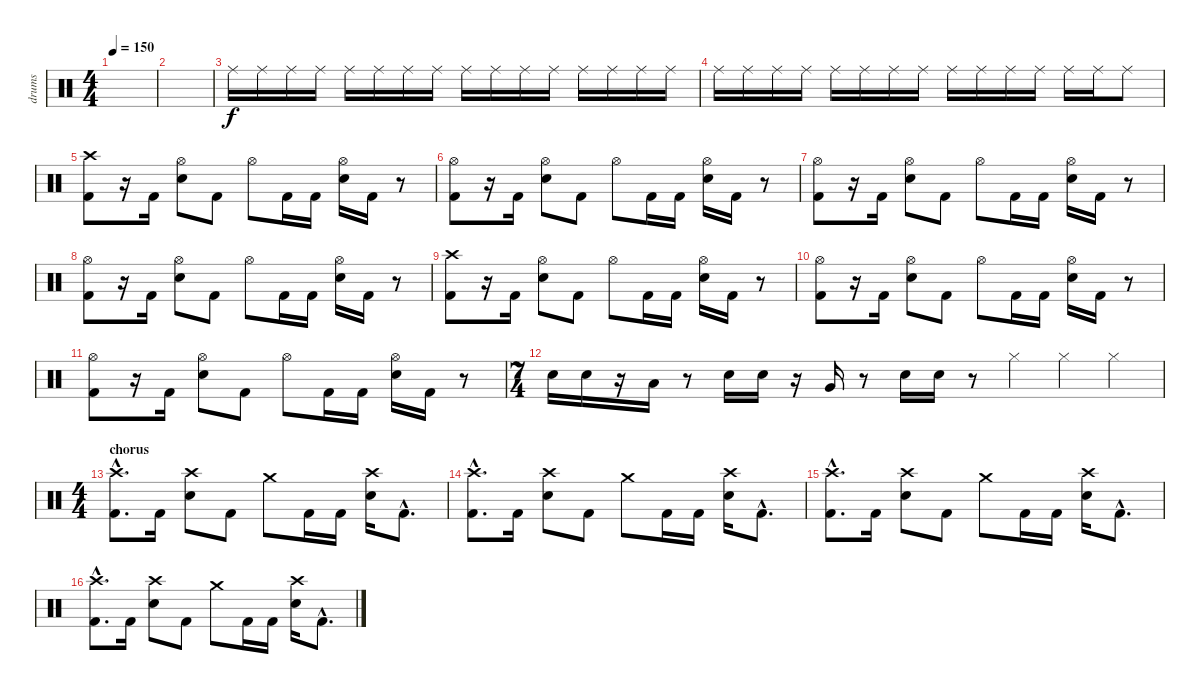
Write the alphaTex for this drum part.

\track ("drums" "drums") {instrument percussion}
\staff {score}
\articulation defaults
\ts (4 4)
\tempo 150
\clef neutral
\ks c
|
|
"Ride (middle)".16 "Ride (middle)".16 "Ride (middle)".16 "Ride (middle)".16 "Ride (middle)".16 "Ride (middle)".16 "Ride (middle)".16 "Ride (middle)".16 "Ride (middle)".16 "Ride (middle)".16 "Ride (middle)".16 "Ride (middle)".16 "Ride (middle)".16 "Ride (middle)".16 "Ride (middle)".16 "Ride (middle)".16 |
"Ride (middle)".16 "Ride (middle)".16 "Ride (middle)".16 "Ride (middle)".16 "Ride (middle)".16 "Ride (middle)".16 "Ride (middle)".16 "Ride (middle)".16 "Ride (middle)".16 "Ride (middle)".16 "Ride (middle)".16 "Ride (middle)".16 "Ride (middle)".16 "Ride (middle)".16 "Ride (middle)".8 |
("Crash high (hit)" "Kick (hit) 2").8 r.16 "Kick (hit) 2".16 ("Hi-Hat (open)" "Electric Snare (hit)").8 "Kick (hit) 2".8 "Hi-Hat (open)".8 "Kick (hit) 2".16 "Kick (hit) 2".16 ("Hi-Hat (open)" "Electric Snare (hit)").16 "Kick (hit) 2".16 r.8 |
("Hi-Hat (open)" "Kick (hit) 2").8 r.16 "Kick (hit) 2".16 ("Hi-Hat (open)" "Electric Snare (hit)").8 "Kick (hit) 2".8 "Hi-Hat (open)".8 "Kick (hit) 2".16 "Kick (hit) 2".16 ("Hi-Hat (open)" "Electric Snare (hit)").16 "Kick (hit) 2".16 r.8 |
("Hi-Hat (open)" "Kick (hit) 2").8 r.16 "Kick (hit) 2".16 ("Hi-Hat (open)" "Electric Snare (hit)").8 "Kick (hit) 2".8 "Hi-Hat (open)".8 "Kick (hit) 2".16 "Kick (hit) 2".16 ("Hi-Hat (open)" "Electric Snare (hit)").16 "Kick (hit) 2".16 r.8 |
("Hi-Hat (open)" "Kick (hit) 2").8 r.16 "Kick (hit) 2".16 ("Hi-Hat (open)" "Electric Snare (hit)").8 "Kick (hit) 2".8 "Hi-Hat (open)".8 "Kick (hit) 2".16 "Kick (hit) 2".16 ("Hi-Hat (open)" "Electric Snare (hit)").16 "Kick (hit) 2".16 r.8 |
("Crash high (hit)" "Kick (hit) 2").8 r.16 "Kick (hit) 2".16 ("Hi-Hat (open)" "Electric Snare (hit)").8 "Kick (hit) 2".8 "Hi-Hat (open)".8 "Kick (hit) 2".16 "Kick (hit) 2".16 ("Hi-Hat (open)" "Electric Snare (hit)").16 "Kick (hit) 2".16 r.8 |
("Hi-Hat (open)" "Kick (hit) 2").8 r.16 "Kick (hit) 2".16 ("Hi-Hat (open)" "Electric Snare (hit)").8 "Kick (hit) 2".8 "Hi-Hat (open)".8 "Kick (hit) 2".16 "Kick (hit) 2".16 ("Hi-Hat (open)" "Electric Snare (hit)").16 "Kick (hit) 2".16 r.8 |
("Hi-Hat (open)" "Kick (hit) 2").8 r.16 "Kick (hit) 2".16 ("Hi-Hat (open)" "Electric Snare (hit)").8 "Kick (hit) 2".8 "Hi-Hat (open)".8 "Kick (hit) 2".16 "Kick (hit) 2".16 ("Hi-Hat (open)" "Electric Snare (hit)").16 "Kick (hit) 2".16 r.8 |
\ts (7 4)
"Electric Snare (hit)".16 "Electric Snare (hit)".16 r.16 "Low Tom (hit)".16 r.8 "Electric Snare (hit)".16 "Electric Snare (hit)".16 r.16 "Very Low Tom (hit)".16 r.8 "Electric Snare (hit)".16 "Electric Snare (hit)".16 r.8 "Hi-Hat (closed)".4 "Hi-Hat (closed)".4 "Hi-Hat (closed)".4 |
\ts (4 4)
\section ("" "chorus")
("Crash high (hit)"{hac} "Kick (hit) 2"{hac}).8{d} "Kick (hit) 2".16 ("Crash high (hit)" "Electric Snare (hit)").8 "Kick (hit) 2".8 "Crash medium (hit)".8 "Kick (hit) 2".16 "Kick (hit) 2".16 ("Crash high (hit)" "Electric Snare (hit)").16 "Kick (hit) 2"{hac}.8{d} |
("Crash high (hit)"{hac} "Kick (hit) 2"{hac}).8{d} "Kick (hit) 2".16 ("Crash high (hit)" "Electric Snare (hit)").8 "Kick (hit) 2".8 "Crash medium (hit)".8 "Kick (hit) 2".16 "Kick (hit) 2".16 ("Crash high (hit)" "Electric Snare (hit)").16 "Kick (hit) 2"{hac}.8{d} |
("Crash high (hit)"{hac} "Kick (hit) 2"{hac}).8{d} "Kick (hit) 2".16 ("Crash high (hit)" "Electric Snare (hit)").8 "Kick (hit) 2".8 "Crash medium (hit)".8 "Kick (hit) 2".16 "Kick (hit) 2".16 ("Crash high (hit)" "Electric Snare (hit)").16 "Kick (hit) 2"{hac}.8{d} |
("Crash high (hit)"{hac} "Kick (hit) 2"{hac}).8{d} "Kick (hit) 2".16 ("Crash high (hit)" "Electric Snare (hit)").8 "Kick (hit) 2".8 "Crash medium (hit)".8 "Kick (hit) 2".16 "Kick (hit) 2".16 ("Crash high (hit)" "Electric Snare (hit)").16 "Kick (hit) 2"{hac}.8{d}
